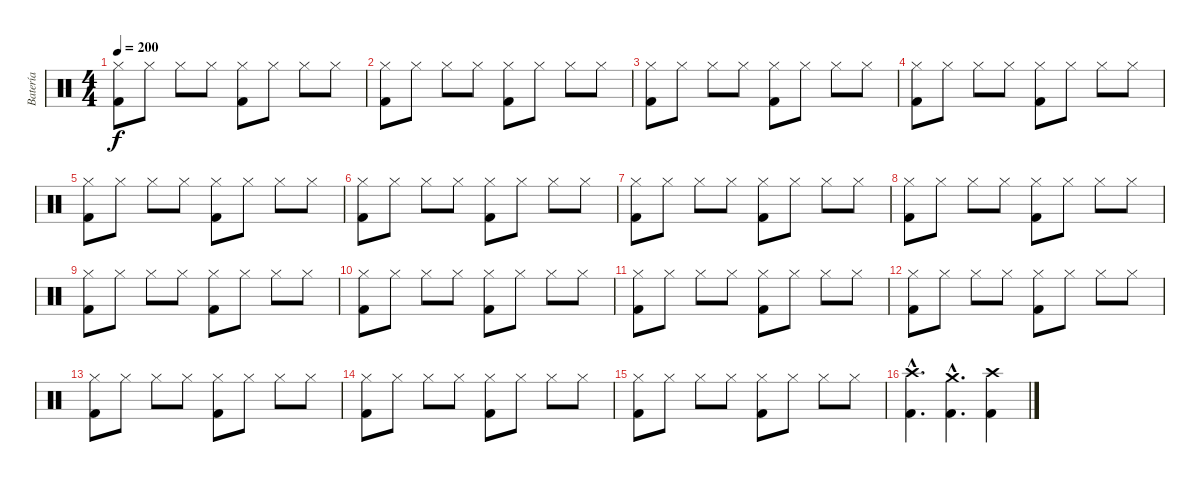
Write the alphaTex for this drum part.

\track ("Batería" "Batería") {instrument percussion}
\staff {score}
\articulation defaults
\ts (4 4)
\tempo 200
\clef neutral
\ks c
("Kick (hit) 2" "Hi-Hat (closed)").8{dy f} "Hi-Hat (closed)".8 "Hi-Hat (closed)".8 "Hi-Hat (closed)".8 ("Kick (hit) 2" "Hi-Hat (closed)").8 "Hi-Hat (closed)".8 "Hi-Hat (closed)".8 "Hi-Hat (closed)".8 |
("Kick (hit) 2" "Hi-Hat (closed)").8 "Hi-Hat (closed)".8 "Hi-Hat (closed)".8 "Hi-Hat (closed)".8 ("Kick (hit) 2" "Hi-Hat (closed)").8 "Hi-Hat (closed)".8 "Hi-Hat (closed)".8 "Hi-Hat (closed)".8 |
("Kick (hit) 2" "Hi-Hat (closed)").8 "Hi-Hat (closed)".8 "Hi-Hat (closed)".8 "Hi-Hat (closed)".8 ("Kick (hit) 2" "Hi-Hat (closed)").8 "Hi-Hat (closed)".8 "Hi-Hat (closed)".8 "Hi-Hat (closed)".8 |
("Kick (hit) 2" "Hi-Hat (closed)").8 "Hi-Hat (closed)".8 "Hi-Hat (closed)".8 "Hi-Hat (closed)".8 ("Kick (hit) 2" "Hi-Hat (closed)").8 "Hi-Hat (closed)".8 "Hi-Hat (closed)".8 "Hi-Hat (closed)".8 |
("Kick (hit) 2" "Hi-Hat (closed)").8 "Hi-Hat (closed)".8 "Hi-Hat (closed)".8 "Hi-Hat (closed)".8 ("Kick (hit) 2" "Hi-Hat (closed)").8 "Hi-Hat (closed)".8 "Hi-Hat (closed)".8 "Hi-Hat (closed)".8 |
("Kick (hit) 2" "Hi-Hat (closed)").8 "Hi-Hat (closed)".8 "Hi-Hat (closed)".8 "Hi-Hat (closed)".8 ("Kick (hit) 2" "Hi-Hat (closed)").8 "Hi-Hat (closed)".8 "Hi-Hat (closed)".8 "Hi-Hat (closed)".8 |
("Kick (hit) 2" "Hi-Hat (closed)").8 "Hi-Hat (closed)".8 "Hi-Hat (closed)".8 "Hi-Hat (closed)".8 ("Kick (hit) 2" "Hi-Hat (closed)").8 "Hi-Hat (closed)".8 "Hi-Hat (closed)".8 "Hi-Hat (closed)".8 |
("Kick (hit) 2" "Hi-Hat (closed)").8 "Hi-Hat (closed)".8 "Hi-Hat (closed)".8 "Hi-Hat (closed)".8 ("Kick (hit) 2" "Hi-Hat (closed)").8 "Hi-Hat (closed)".8 "Hi-Hat (closed)".8 "Hi-Hat (closed)".8 |
("Kick (hit) 2" "Hi-Hat (closed)").8 "Hi-Hat (closed)".8 "Hi-Hat (closed)".8 "Hi-Hat (closed)".8 ("Kick (hit) 2" "Hi-Hat (closed)").8 "Hi-Hat (closed)".8 "Hi-Hat (closed)".8 "Hi-Hat (closed)".8 |
("Kick (hit) 2" "Hi-Hat (closed)").8 "Hi-Hat (closed)".8 "Hi-Hat (closed)".8 "Hi-Hat (closed)".8 ("Kick (hit) 2" "Hi-Hat (closed)").8 "Hi-Hat (closed)".8 "Hi-Hat (closed)".8 "Hi-Hat (closed)".8 |
("Kick (hit) 2" "Hi-Hat (closed)").8 "Hi-Hat (closed)".8 "Hi-Hat (closed)".8 "Hi-Hat (closed)".8 ("Kick (hit) 2" "Hi-Hat (closed)").8 "Hi-Hat (closed)".8 "Hi-Hat (closed)".8 "Hi-Hat (closed)".8 |
("Kick (hit) 2" "Hi-Hat (closed)").8 "Hi-Hat (closed)".8 "Hi-Hat (closed)".8 "Hi-Hat (closed)".8 ("Kick (hit) 2" "Hi-Hat (closed)").8 "Hi-Hat (closed)".8 "Hi-Hat (closed)".8 "Hi-Hat (closed)".8 |
("Kick (hit) 2" "Hi-Hat (closed)").8 "Hi-Hat (closed)".8 "Hi-Hat (closed)".8 "Hi-Hat (closed)".8 ("Kick (hit) 2" "Hi-Hat (closed)").8 "Hi-Hat (closed)".8 "Hi-Hat (closed)".8 "Hi-Hat (closed)".8 |
("Kick (hit) 2" "Hi-Hat (closed)").8 "Hi-Hat (closed)".8 "Hi-Hat (closed)".8 "Hi-Hat (closed)".8 ("Kick (hit) 2" "Hi-Hat (closed)").8 "Hi-Hat (closed)".8 "Hi-Hat (closed)".8 "Hi-Hat (closed)".8 |
("Kick (hit) 2" "Hi-Hat (closed)").8 "Hi-Hat (closed)".8 "Hi-Hat (closed)".8 "Hi-Hat (closed)".8 ("Kick (hit) 2" "Hi-Hat (closed)").8 "Hi-Hat (closed)".8 "Hi-Hat (closed)".8 "Hi-Hat (closed)".8 |
("Kick (hit) 2"{hac} "Crash high (hit)"{hac}).4{d} ("Kick (hit) 2"{hac} "Crash medium (hit)"{hac}).4{d} ("Kick (hit) 2" "Crash high (hit)").4
